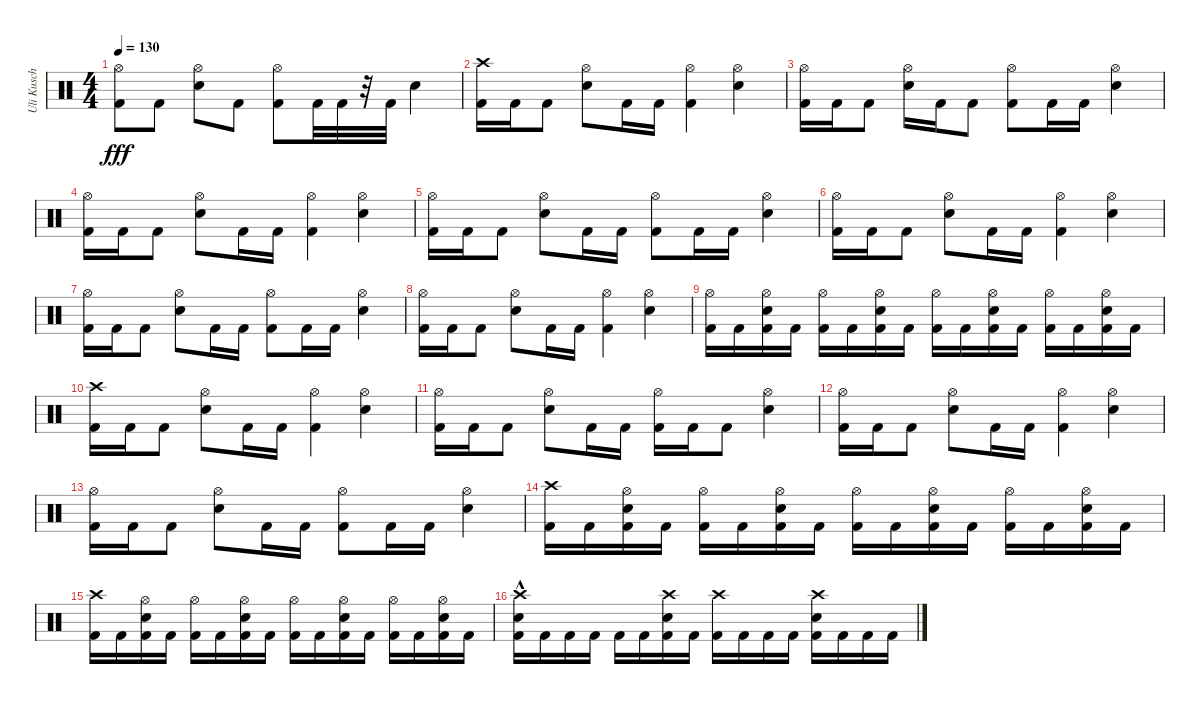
\track ("Uli Kusch" "Uli Kusch") {instrument percussion}
\staff {score}
\articulation defaults
\ts (4 4)
\tempo 130
\clef neutral
\ks c
("Kick (hit) 2" "Hi-Hat (open)").8{dy fff} "Kick (hit) 2".8 ("Electric Snare (hit)" "Hi-Hat (open)").8 "Kick (hit) 2".8 ("Kick (hit) 2" "Hi-Hat (open)").8 "Kick (hit) 2".32 "Kick (hit) 2".32 r.32 "Kick (hit) 2".32 "Electric Snare (hit)".4 |
("Crash high (hit)" "Kick (hit) 2").16 "Kick (hit) 2".16 "Kick (hit) 2".8 ("Electric Snare (hit)" "Hi-Hat (open)").8 "Kick (hit) 2".16 "Kick (hit) 2".16 ("Hi-Hat (open)" "Kick (hit) 2").4 ("Electric Snare (hit)" "Hi-Hat (open)").4 |
("Hi-Hat (open)" "Kick (hit) 2").16 "Kick (hit) 2".16 "Kick (hit) 2".8 ("Electric Snare (hit)" "Hi-Hat (open)").16 "Kick (hit) 2".16 "Kick (hit) 2".8 ("Kick (hit) 2" "Hi-Hat (open)").8 "Kick (hit) 2".16 "Kick (hit) 2".16 ("Electric Snare (hit)" "Hi-Hat (open)").4 |
("Kick (hit) 2" "Hi-Hat (open)").16 "Kick (hit) 2".16 "Kick (hit) 2".8 ("Electric Snare (hit)" "Hi-Hat (open)").8 "Kick (hit) 2".16 "Kick (hit) 2".16 ("Hi-Hat (open)" "Kick (hit) 2").4 ("Electric Snare (hit)" "Hi-Hat (open)").4 |
("Kick (hit) 2" "Hi-Hat (open)").16 "Kick (hit) 2".16 "Kick (hit) 2".8 ("Electric Snare (hit)" "Hi-Hat (open)").8 "Kick (hit) 2".16 "Kick (hit) 2".16 ("Hi-Hat (open)" "Kick (hit) 2").8 "Kick (hit) 2".16 "Kick (hit) 2".16 ("Electric Snare (hit)" "Hi-Hat (open)").4 |
("Kick (hit) 2" "Hi-Hat (open)").16 "Kick (hit) 2".16 "Kick (hit) 2".8 ("Electric Snare (hit)" "Hi-Hat (open)").8 "Kick (hit) 2".16 "Kick (hit) 2".16 ("Hi-Hat (open)" "Kick (hit) 2").4 ("Electric Snare (hit)" "Hi-Hat (open)").4 |
("Kick (hit) 2" "Hi-Hat (open)").16 "Kick (hit) 2".16 "Kick (hit) 2".8 ("Electric Snare (hit)" "Hi-Hat (open)").8 "Kick (hit) 2".16 "Kick (hit) 2".16 ("Hi-Hat (open)" "Kick (hit) 2").8 "Kick (hit) 2".16 "Kick (hit) 2".16 ("Electric Snare (hit)" "Hi-Hat (open)").4 |
("Kick (hit) 2" "Hi-Hat (open)").16 "Kick (hit) 2".16 "Kick (hit) 2".8 ("Electric Snare (hit)" "Hi-Hat (open)").8 "Kick (hit) 2".16 "Kick (hit) 2".16 ("Hi-Hat (open)" "Kick (hit) 2").4 ("Electric Snare (hit)" "Hi-Hat (open)").4 |
("Kick (hit) 2" "Hi-Hat (open)").16 "Kick (hit) 2".16 ("Kick (hit) 2" "Hi-Hat (open)" "Electric Snare (hit)").16 "Kick (hit) 2".16 ("Kick (hit) 2" "Hi-Hat (open)").16 "Kick (hit) 2".16 ("Kick (hit) 2" "Hi-Hat (open)" "Electric Snare (hit)").16 "Kick (hit) 2".16 ("Kick (hit) 2" "Hi-Hat (open)").16 "Kick (hit) 2".16 ("Kick (hit) 2" "Hi-Hat (open)" "Electric Snare (hit)").16 "Kick (hit) 2".16 ("Kick (hit) 2" "Hi-Hat (open)").16 "Kick (hit) 2".16 ("Kick (hit) 2" "Hi-Hat (open)" "Electric Snare (hit)").16 "Kick (hit) 2".16 |
("Crash high (hit)" "Kick (hit) 2").16 "Kick (hit) 2".16 "Kick (hit) 2".8 ("Electric Snare (hit)" "Hi-Hat (open)").8 "Kick (hit) 2".16 "Kick (hit) 2".16 ("Hi-Hat (open)" "Kick (hit) 2").4 ("Electric Snare (hit)" "Hi-Hat (open)").4 |
("Kick (hit) 2" "Hi-Hat (open)").16 "Kick (hit) 2".16 "Kick (hit) 2".8 ("Electric Snare (hit)" "Hi-Hat (open)").8 "Kick (hit) 2".16 "Kick (hit) 2".16 ("Hi-Hat (open)" "Kick (hit) 2").16 "Kick (hit) 2".16 "Kick (hit) 2".8 ("Electric Snare (hit)" "Hi-Hat (open)").4 |
("Kick (hit) 2" "Hi-Hat (open)").16 "Kick (hit) 2".16 "Kick (hit) 2".8 ("Electric Snare (hit)" "Hi-Hat (open)").8 "Kick (hit) 2".16 "Kick (hit) 2".16 ("Hi-Hat (open)" "Kick (hit) 2").4 ("Electric Snare (hit)" "Hi-Hat (open)").4 |
("Kick (hit) 2" "Hi-Hat (open)").16 "Kick (hit) 2".16 "Kick (hit) 2".8 ("Electric Snare (hit)" "Hi-Hat (open)").8 "Kick (hit) 2".16 "Kick (hit) 2".16 ("Hi-Hat (open)" "Kick (hit) 2").8 "Kick (hit) 2".16 "Kick (hit) 2".16 ("Electric Snare (hit)" "Hi-Hat (open)").4 |
("Kick (hit) 2" "Crash high (hit)").16 "Kick (hit) 2".16 ("Kick (hit) 2" "Hi-Hat (open)" "Electric Snare (hit)").16 "Kick (hit) 2".16 ("Kick (hit) 2" "Hi-Hat (open)").16 "Kick (hit) 2".16 ("Kick (hit) 2" "Hi-Hat (open)" "Electric Snare (hit)").16 "Kick (hit) 2".16 ("Kick (hit) 2" "Hi-Hat (open)").16 "Kick (hit) 2".16 ("Kick (hit) 2" "Hi-Hat (open)" "Electric Snare (hit)").16 "Kick (hit) 2".16 ("Kick (hit) 2" "Hi-Hat (open)").16 "Kick (hit) 2".16 ("Kick (hit) 2" "Hi-Hat (open)" "Electric Snare (hit)").16 "Kick (hit) 2".16 |
("Kick (hit) 2" "Crash high (hit)").16 "Kick (hit) 2".16 ("Kick (hit) 2" "Hi-Hat (open)" "Electric Snare (hit)").16 "Kick (hit) 2".16 ("Kick (hit) 2" "Hi-Hat (open)").16 "Kick (hit) 2".16 ("Kick (hit) 2" "Hi-Hat (open)" "Electric Snare (hit)").16 "Kick (hit) 2".16 ("Kick (hit) 2" "Hi-Hat (open)").16 "Kick (hit) 2".16 ("Kick (hit) 2" "Hi-Hat (open)" "Electric Snare (hit)").16 "Kick (hit) 2".16 ("Kick (hit) 2" "Hi-Hat (open)").16 "Kick (hit) 2".16 ("Kick (hit) 2" "Hi-Hat (open)" "Electric Snare (hit)").16 "Kick (hit) 2".16 |
("Kick (hit) 2" "Electric Snare (hit)"{hac} "Crash high (hit)"{hac}).16 "Kick (hit) 2".16 "Kick (hit) 2".16 "Kick (hit) 2".16 "Kick (hit) 2".16 "Kick (hit) 2".16 ("Kick (hit) 2" "Electric Snare (hit)" "Crash high (hit)").16 "Kick (hit) 2".16 ("Kick (hit) 2" "Crash high (hit)").16 "Kick (hit) 2".16 "Kick (hit) 2".16 "Kick (hit) 2".16 ("Kick (hit) 2" "Electric Snare (hit)" "Crash high (hit)").16 "Kick (hit) 2".16 "Kick (hit) 2".16 "Kick (hit) 2".16
